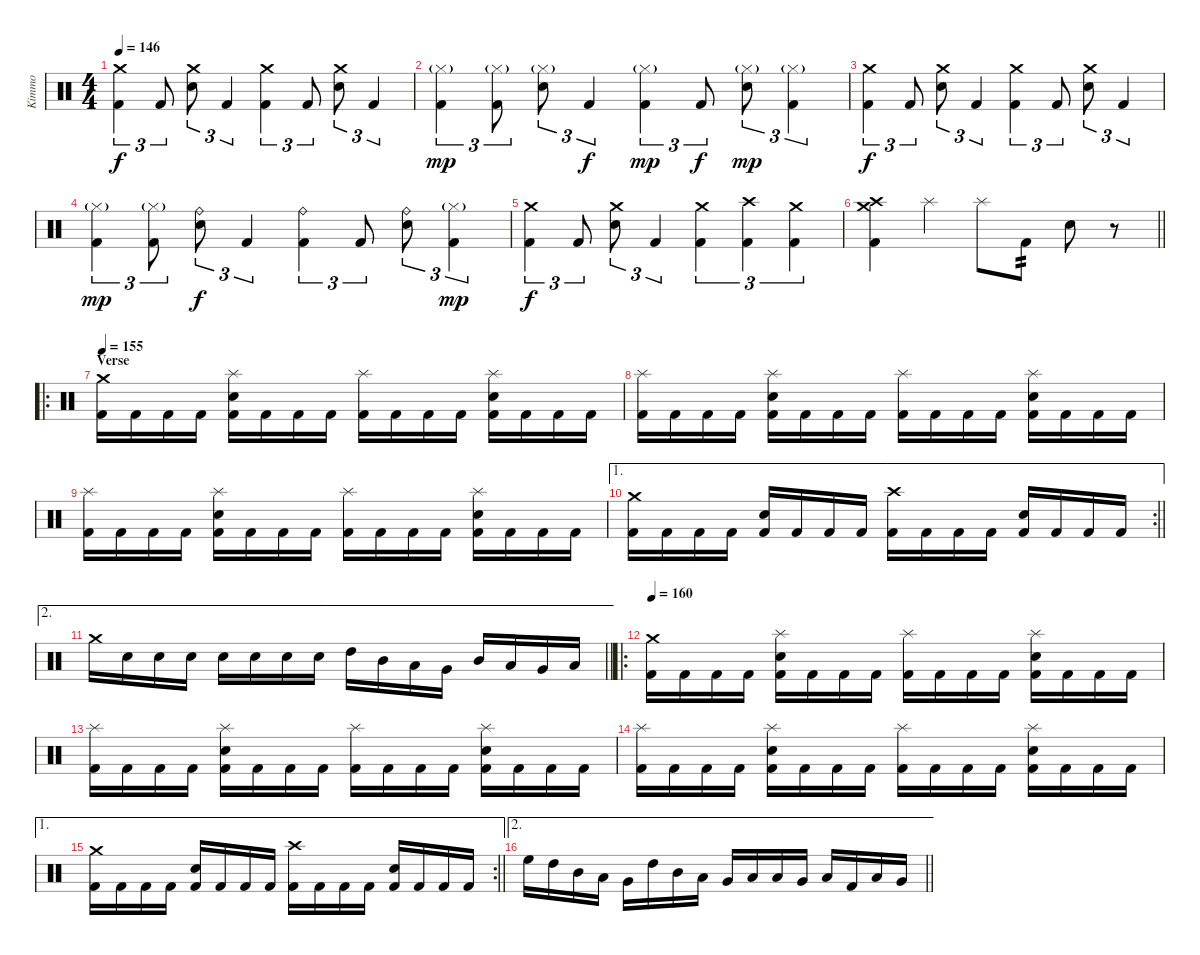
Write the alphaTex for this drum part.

\track ("Kimmo" "Kimmo") {instrument percussion}
\staff {score}
\articulation defaults
\ts (4 4)
\tempo 146
\clef neutral
\ks c
("Kick (hit) 2" "Crash medium (hit)").4{tu (3 2) dy f} "Kick (hit) 2".8{tu (3 2)} ("Snare (hit) 2" "Crash medium (hit)").8{tu (3 2)} "Kick (hit) 2".4{tu (3 2)} ("Kick (hit) 2" "Crash medium (hit)").4{tu (3 2)} "Kick (hit) 2".8{tu (3 2)} ("Snare (hit) 2" "Crash medium (hit)").8{tu (3 2)} "Kick (hit) 2".4{tu (3 2)} |
("Kick (hit) 2" "Hi-Hat (closed)"{g}).4{tu (3 2) dy mp} ("Kick (hit) 2" "Hi-Hat (closed)"{g}).8{tu (3 2)} ("Snare (hit) 2" "Hi-Hat (closed)"{g}).8{tu (3 2)} "Kick (hit) 2".4{tu (3 2) dy f} ("Kick (hit) 2" "Hi-Hat (closed)"{g}).4{tu (3 2) dy mp} "Kick (hit) 2".8{tu (3 2) dy f} ("Snare (hit) 2" "Hi-Hat (closed)"{g}).8{tu (3 2) dy mp} ("Kick (hit) 2" "Hi-Hat (closed)"{g}).4{tu (3 2)} |
("Kick (hit) 2" "Crash medium (hit)").4{tu (3 2) dy f} "Kick (hit) 2".8{tu (3 2)} ("Snare (hit) 2" "Crash medium (hit)").8{tu (3 2)} "Kick (hit) 2".4{tu (3 2)} ("Kick (hit) 2" "Crash medium (hit)").4{tu (3 2)} "Kick (hit) 2".8{tu (3 2)} ("Snare (hit) 2" "Crash medium (hit)").8{tu (3 2)} "Kick (hit) 2".4{tu (3 2)} |
("Kick (hit) 2" "Hi-Hat (closed)"{g}).4{tu (3 2) dy mp} ("Kick (hit) 2" "Hi-Hat (closed)"{g}).8{tu (3 2)} ("Snare (hit) 2" "Ride (bell)").8{tu (3 2) dy f} "Kick (hit) 2".4{tu (3 2)} ("Kick (hit) 2" "Ride (bell)").4{tu (3 2)} "Kick (hit) 2".8{tu (3 2)} ("Snare (hit) 2" "Ride (bell)").8{tu (3 2)} ("Kick (hit) 2" "Hi-Hat (closed)"{g}).4{tu (3 2) dy mp} |
("Kick (hit) 2" "Crash medium (hit)").4{tu (3 2) dy f} "Kick (hit) 2".8{tu (3 2)} ("Snare (hit) 2" "Crash medium (hit)").8{tu (3 2)} "Kick (hit) 2".4{tu (3 2)} ("Kick (hit) 2" "Crash medium (hit)").4{tu (3 2)} ("Kick (hit) 2" "Crash high (hit)").4{tu (3 2)} ("Kick (hit) 2" "Crash medium (hit)").4{tu (3 2)} |
\barLineRight lightlight
("Kick (hit) 2" "Crash medium (hit)" "Crash high (hit)").4 "Splash (hit)".4 "Splash (hit)".8 "Kick (hit) 2".8{tp 2} "Snare (hit) 2".8 r.8 |
\ro
\section ("" "Verse")
\tempo 155
("Kick (hit) 2" "Crash medium (hit)").16 "Kick (hit) 2".16 "Kick (hit) 2".16 "Kick (hit) 2".16 ("Kick (hit) 2" "Snare (hit) 2" "Splash (hit)").16 "Kick (hit) 2".16 "Kick (hit) 2".16 "Kick (hit) 2".16 ("Kick (hit) 2" "Splash (hit)").16 "Kick (hit) 2".16 "Kick (hit) 2".16 "Kick (hit) 2".16 ("Kick (hit) 2" "Snare (hit) 2" "Splash (hit)").16 "Kick (hit) 2".16 "Kick (hit) 2".16 "Kick (hit) 2".16 |
("Kick (hit) 2" "Splash (hit)").16 "Kick (hit) 2".16 "Kick (hit) 2".16 "Kick (hit) 2".16 ("Kick (hit) 2" "Snare (hit) 2" "Splash (hit)").16 "Kick (hit) 2".16 "Kick (hit) 2".16 "Kick (hit) 2".16 ("Kick (hit) 2" "Splash (hit)").16 "Kick (hit) 2".16 "Kick (hit) 2".16 "Kick (hit) 2".16 ("Kick (hit) 2" "Snare (hit) 2" "Splash (hit)").16 "Kick (hit) 2".16 "Kick (hit) 2".16 "Kick (hit) 2".16 |
("Kick (hit) 2" "Splash (hit)").16 "Kick (hit) 2".16 "Kick (hit) 2".16 "Kick (hit) 2".16 ("Kick (hit) 2" "Snare (hit) 2" "Splash (hit)").16 "Kick (hit) 2".16 "Kick (hit) 2".16 "Kick (hit) 2".16 ("Kick (hit) 2" "Splash (hit)").16 "Kick (hit) 2".16 "Kick (hit) 2".16 "Kick (hit) 2".16 ("Kick (hit) 2" "Snare (hit) 2" "Splash (hit)").16 "Kick (hit) 2".16 "Kick (hit) 2".16 "Kick (hit) 2".16 |
\ae 1
\rc 2
\barLineRight lightlight
("Kick (hit) 2" "Crash medium (hit)").16 "Kick (hit) 2".16 "Kick (hit) 2".16 "Kick (hit) 2".16 ("Kick (hit) 2" "Snare (hit) 2").16 "Kick (hit) 2".16 "Kick (hit) 2".16 "Kick (hit) 2".16 ("Kick (hit) 2" "Crash high (hit)").16 "Kick (hit) 2".16 "Kick (hit) 2".16 "Kick (hit) 2".16 ("Kick (hit) 2" "Snare (hit) 2").16 "Kick (hit) 2".16 "Kick (hit) 2".16 "Kick (hit) 2".16 |
\ae 2
\barLineRight lightlight "Crash medium (hit)".16 "Snare (hit) 2".16 "Snare (hit) 2".16 "Snare (hit) 2".16 "Snare (hit) 2".16 "Snare (hit) 2".16 "Snare (hit) 2".16 "Snare (hit) 2".16 "High Tom (hit)".16 "Mid Tom (hit)".16 "Low Tom (hit)".16 "Very Low Tom (hit)".16 "Mid Tom (hit)".16 "Low Tom (hit)".16 "Very Low Tom (hit)".16 "Low Floor Tom (hit)".16
|
\ro
\section ("" "")
\tempo 160
("Kick (hit) 2" "Crash medium (hit)").16 "Kick (hit) 2".16 "Kick (hit) 2".16 "Kick (hit) 2".16 ("Kick (hit) 2" "Snare (hit) 2" "Splash (hit)").16 "Kick (hit) 2".16 "Kick (hit) 2".16 "Kick (hit) 2".16 ("Kick (hit) 2" "Splash (hit)").16 "Kick (hit) 2".16 "Kick (hit) 2".16 "Kick (hit) 2".16 ("Kick (hit) 2" "Snare (hit) 2" "Splash (hit)").16 "Kick (hit) 2".16 "Kick (hit) 2".16 "Kick (hit) 2".16 |
("Kick (hit) 2" "Splash (hit)").16 "Kick (hit) 2".16 "Kick (hit) 2".16 "Kick (hit) 2".16 ("Kick (hit) 2" "Snare (hit) 2" "Splash (hit)").16 "Kick (hit) 2".16 "Kick (hit) 2".16 "Kick (hit) 2".16 ("Kick (hit) 2" "Splash (hit)").16 "Kick (hit) 2".16 "Kick (hit) 2".16 "Kick (hit) 2".16 ("Kick (hit) 2" "Snare (hit) 2" "Splash (hit)").16 "Kick (hit) 2".16 "Kick (hit) 2".16 "Kick (hit) 2".16 |
("Kick (hit) 2" "Splash (hit)").16 "Kick (hit) 2".16 "Kick (hit) 2".16 "Kick (hit) 2".16 ("Kick (hit) 2" "Snare (hit) 2" "Splash (hit)").16 "Kick (hit) 2".16 "Kick (hit) 2".16 "Kick (hit) 2".16 ("Kick (hit) 2" "Splash (hit)").16 "Kick (hit) 2".16 "Kick (hit) 2".16 "Kick (hit) 2".16 ("Kick (hit) 2" "Snare (hit) 2" "Splash (hit)").16 "Kick (hit) 2".16 "Kick (hit) 2".16 "Kick (hit) 2".16 |
\ae 1
\rc 2
\barLineRight lightlight
("Kick (hit) 2" "Crash medium (hit)").16 "Kick (hit) 2".16 "Kick (hit) 2".16 "Kick (hit) 2".16 ("Kick (hit) 2" "Snare (hit) 2").16 "Kick (hit) 2".16 "Kick (hit) 2".16 "Kick (hit) 2".16 ("Kick (hit) 2" "Crash high (hit)").16 "Kick (hit) 2".16 "Kick (hit) 2".16 "Kick (hit) 2".16 ("Kick (hit) 2" "Snare (hit) 2").16 "Kick (hit) 2".16 "Kick (hit) 2".16 "Kick (hit) 2".16 |
\ae 2
\barLineRight lightlight "High Floor Tom (hit)".16 "High Tom (hit)".16 "Mid Tom (hit)".16 "Low Tom (hit)".16 "Very Low Tom (hit)".16 "High Tom (hit)".16 "Mid Tom (hit)".16 "Low Tom (hit)".16 "Very Low Tom (hit)".16 "Low Floor Tom (hit)".16 "Low Tom (hit)".16 "Very Low Tom (hit)".16 "Low Floor Tom (hit)".16 "Kick (hit) 2".16 "Low Tom (hit)".16 "Very Low Tom (hit)".16
